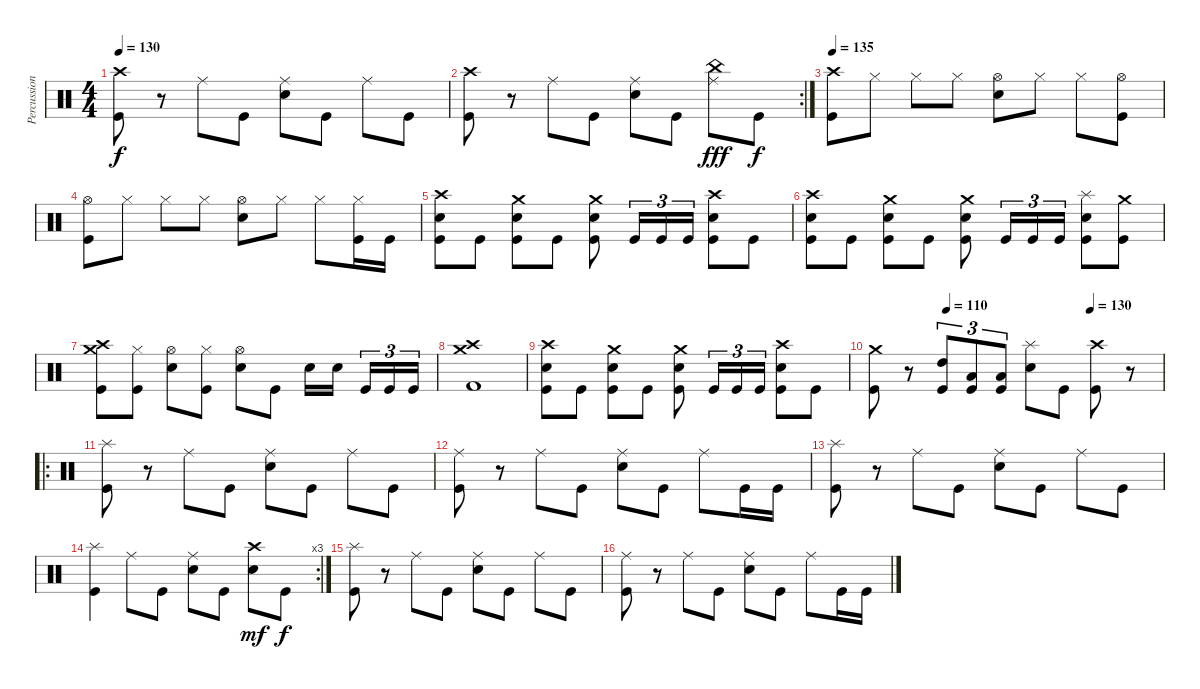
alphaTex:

\track ("Percussion" "Percussion") {instrument percussion}
\staff {score}
\articulation defaults
\ts (4 4)
\tempo 130
\clef neutral
\ks c
("Crash high (hit)" "Kick (hit)").8{dy f} r.8 "Ride (middle)".8 "Kick (hit)".8 ("Ride (middle)" "Electric Snare (hit)").8 "Kick (hit)".8 "Ride (middle)".8 "Kick (hit)".8 |
\rc 2
("Crash high (hit)" "Kick (hit)").8 r.8 "Ride (middle)".8 "Kick (hit)".8 ("Ride (middle)" "Electric Snare (hit)").8 "Kick (hit)".8 ("China (hit)" "Ride (middle)").8{dy fff} "Kick (hit)".8{dy f} |
\tempo 135
("Crash high (hit)" "Kick (hit)").8 "Hi-Hat (closed)".8 "Hi-Hat (closed)".8 "Hi-Hat (closed)".8 ("Hi-Hat (open)" "Electric Snare (hit)").8 "Hi-Hat (closed)".8 "Hi-Hat (closed)".8 ("Hi-Hat (open)" "Kick (hit)").8 |
("Hi-Hat (open)" "Kick (hit)").8 "Hi-Hat (closed)".8 "Hi-Hat (closed)".8 "Hi-Hat (closed)".8 ("Hi-Hat (open)" "Electric Snare (hit)").8 "Hi-Hat (closed)".8 "Hi-Hat (closed)".8 ("Hi-Hat (closed)" "Kick (hit)").16 "Kick (hit)".16 |
("Crash high (hit)" "Electric Snare (hit)" "Kick (hit)").8 "Kick (hit)".8 ("Crash medium (hit)" "Electric Snare (hit)" "Kick (hit)").8 "Kick (hit)".8 ("Crash medium (hit)" "Electric Snare (hit)" "Kick (hit)").8 "Kick (hit)".16{tu (3 2)} "Kick (hit)".16{tu (3 2)} "Kick (hit)".16{tu (3 2)} ("Crash high (hit)" "Electric Snare (hit)" "Kick (hit)").8 "Kick (hit)".8 |
("Crash high (hit)" "Electric Snare (hit)" "Kick (hit)").8 "Kick (hit)".8 ("Crash medium (hit)" "Electric Snare (hit)" "Kick (hit)").8 "Kick (hit)".8 ("Crash medium (hit)" "Electric Snare (hit)" "Kick (hit)").8 "Kick (hit)".16{tu (3 2)} "Kick (hit)".16{tu (3 2)} "Kick (hit)".16{tu (3 2)} ("Splash (hit)" "Electric Snare (hit)" "Kick (hit)").8 ("Crash medium (hit)" "Kick (hit)").8 |
("Crash medium (hit)" "Crash high (hit)" "Kick (hit)").8 ("Hi-Hat (closed)" "Kick (hit)").8 ("Hi-Hat (open)" "Electric Snare (hit)").8 ("Hi-Hat (closed)" "Kick (hit)").8 ("Hi-Hat (open)" "Electric Snare (hit)").8 "Kick (hit)".8 "Electric Snare (hit)".16 "Electric Snare (hit)".16 "Kick (hit)".16{tu (3 2)} "Kick (hit)".16{tu (3 2)} "Kick (hit)".16{tu (3 2)} |
("Crash high (hit)" "Crash medium (hit)" "Kick (hit) 2").1 |
("Crash high (hit)" "Electric Snare (hit)" "Kick (hit)").8 "Kick (hit)".8 ("Crash medium (hit)" "Electric Snare (hit)" "Kick (hit)").8 "Kick (hit)".8 ("Crash medium (hit)" "Electric Snare (hit)" "Kick (hit)").8 "Kick (hit)".16{tu (3 2)} "Kick (hit)".16{tu (3 2)} "Kick (hit)".16{tu (3 2)} ("Crash high (hit)" "Electric Snare (hit)" "Kick (hit)").8 "Kick (hit)".8 |
\tempo (110 0.25)
\tempo (130 0.75)
("Crash medium (hit)" "Kick (hit)").8 r.8 ("High Tom (hit)" "Kick (hit)").8{tu (3 2)} ("Low Tom (hit)" "Kick (hit)").8{tu (3 2)} ("Low Floor Tom (hit)" "Kick (hit)").8{tu (3 2)} ("Splash (hit)" "Electric Snare (hit)").8 "Kick (hit)".8 ("Crash high (hit)" "Kick (hit)").8 r.8 |
\ro
("Splash (hit)" "Kick (hit)").8 r.8 "Ride (middle)".8 "Kick (hit)".8 ("Ride (middle)" "Electric Snare (hit)").8 "Kick (hit)".8 "Ride (middle)".8 "Kick (hit)".8 |
("Ride (middle)" "Kick (hit)").8 r.8 "Ride (middle)".8 "Kick (hit)".8 ("Ride (middle)" "Electric Snare (hit)").8 "Kick (hit)".8 "Ride (middle)".8 "Kick (hit)".16 "Kick (hit)".16 |
("Splash (hit)" "Kick (hit)").8 r.8 "Ride (middle)".8 "Kick (hit)".8 ("Ride (middle)" "Electric Snare (hit)").8 "Kick (hit)".8 "Ride (middle)".8 "Kick (hit)".8 |
\rc 3
("Splash (hit)" "Kick (hit)").4 "Ride (middle)".8 "Kick (hit)".8 ("Ride (middle)" "Electric Snare (hit)").8 "Kick (hit)".8 ("Crash high (hit)" "Electric Snare (hit)").8{dy mf} "Kick (hit)".8{dy f} |
("Splash (hit)" "Kick (hit)").8 r.8 "Ride (middle)".8 "Kick (hit)".8 ("Ride (middle)" "Electric Snare (hit)").8 "Kick (hit)".8 "Ride (middle)".8 "Kick (hit)".8 |
("Ride (middle)" "Kick (hit)").8 r.8 "Ride (middle)".8 "Kick (hit)".8 ("Ride (middle)" "Electric Snare (hit)").8 "Kick (hit)".8 "Ride (middle)".8 "Kick (hit)".16 "Kick (hit)".16
